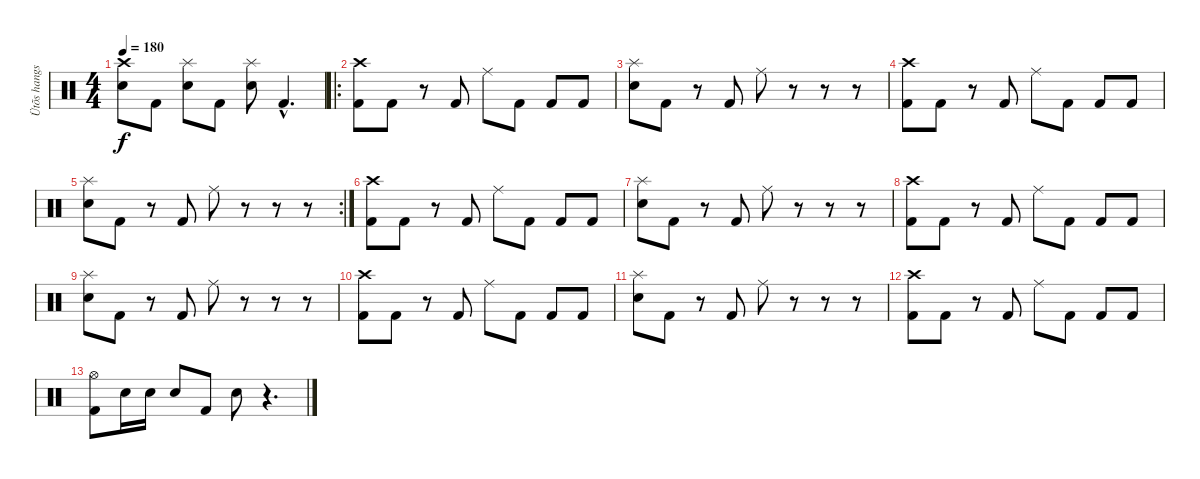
\track ("Ütõs hangszer" "Ütõs hangs") {instrument percussion}
\staff {score}
\articulation defaults
\ts (4 4)
\tempo 180
\clef neutral
\ks c
("Crash high (hit)" "Electric Snare (hit)").8{dy f} "Kick (hit) 2".8 ("Splash (hit)" "Electric Snare (hit)").8 "Kick (hit) 2".8 ("Splash (hit)" "Electric Snare (hit)").8 "Kick (hit) 2"{hac}.4{d} |
\ro
("Crash high (hit)" "Kick (hit) 2").8 "Kick (hit) 2".8 r.8 "Kick (hit) 2".8 "Ride (middle)".8 "Kick (hit) 2".8 "Kick (hit) 2".8 "Kick (hit) 2".8 |
("Splash (hit)" "Electric Snare (hit)").8 "Kick (hit) 2".8 r.8 "Kick (hit) 2".8 "Ride (middle)".8 r.8 r.8 r.8 |
("Crash high (hit)" "Kick (hit) 2").8 "Kick (hit) 2".8 r.8 "Kick (hit) 2".8 "Ride (middle)".8 "Kick (hit) 2".8 "Kick (hit) 2".8 "Kick (hit) 2".8 |
\rc 2
("Splash (hit)" "Electric Snare (hit)").8 "Kick (hit) 2".8 r.8 "Kick (hit) 2".8 "Ride (middle)".8 r.8 r.8 r.8 |
("Crash high (hit)" "Kick (hit) 2").8 "Kick (hit) 2".8 r.8 "Kick (hit) 2".8 "Ride (middle)".8 "Kick (hit) 2".8 "Kick (hit) 2".8 "Kick (hit) 2".8 |
("Splash (hit)" "Electric Snare (hit)").8 "Kick (hit) 2".8 r.8 "Kick (hit) 2".8 "Ride (middle)".8 r.8 r.8 r.8 |
("Crash high (hit)" "Kick (hit) 2").8 "Kick (hit) 2".8 r.8 "Kick (hit) 2".8 "Ride (middle)".8 "Kick (hit) 2".8 "Kick (hit) 2".8 "Kick (hit) 2".8 |
("Splash (hit)" "Electric Snare (hit)").8 "Kick (hit) 2".8 r.8 "Kick (hit) 2".8 "Ride (middle)".8 r.8 r.8 r.8 |
("Crash high (hit)" "Kick (hit) 2").8 "Kick (hit) 2".8 r.8 "Kick (hit) 2".8 "Ride (middle)".8 "Kick (hit) 2".8 "Kick (hit) 2".8 "Kick (hit) 2".8 |
("Splash (hit)" "Electric Snare (hit)").8 "Kick (hit) 2".8 r.8 "Kick (hit) 2".8 "Ride (middle)".8 r.8 r.8 r.8 |
("Crash high (hit)" "Kick (hit) 2").8 "Kick (hit) 2".8 r.8 "Kick (hit) 2".8 "Ride (middle)".8 "Kick (hit) 2".8 "Kick (hit) 2".8 "Kick (hit) 2".8 |
("Hi-Hat (open)" "Kick (hit) 2").8 "Electric Snare (hit)".16 "Electric Snare (hit)".16 "Electric Snare (hit)".8 "Kick (hit) 2".8 "Electric Snare (hit)".8 r.4{d}
